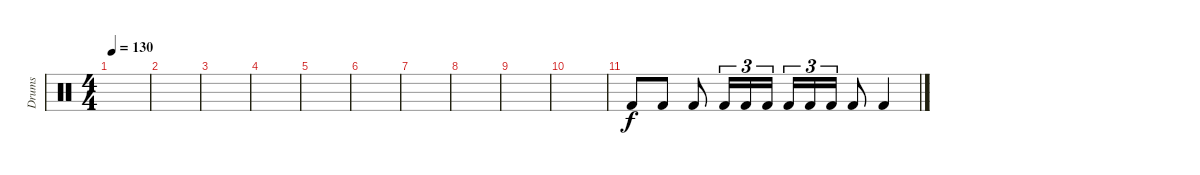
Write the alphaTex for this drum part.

\track ("Drums" "Drums") {instrument percussion}
\staff {score}
\articulation defaults
\ts (4 4)
\tempo 130
\clef neutral
\ks c
|
|
|
|
|
|
|
|
|
|
"Kick (hit) 2".8 "Kick (hit) 2".8 "Kick (hit) 2".8 "Kick (hit) 2".16{tu (3 2)} "Kick (hit) 2".16{tu (3 2)} "Kick (hit) 2".16{tu (3 2)} "Kick (hit) 2".16{tu (3 2)} "Kick (hit) 2".16{tu (3 2)} "Kick (hit) 2".16{tu (3 2)} "Kick (hit) 2".8 "Kick (hit) 2".4
